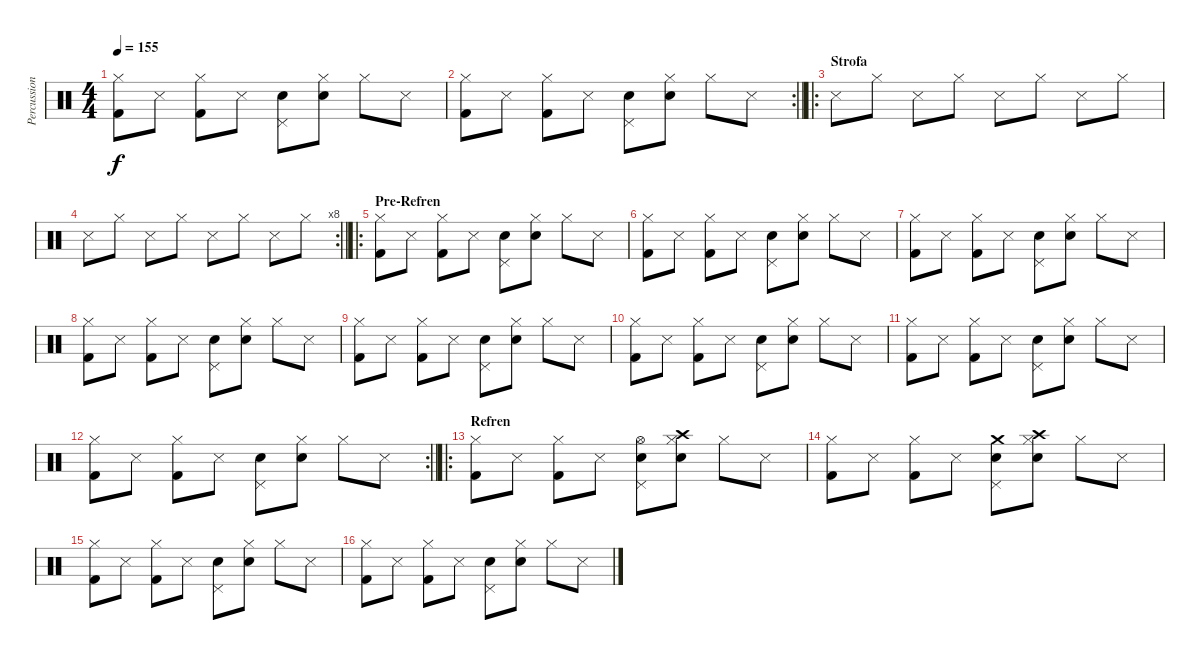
\track ("Percussion" "Percussion") {instrument percussion}
\staff {score}
\articulation defaults
\ts (4 4)
\tempo 155
\clef neutral
\ks c
("Hi-Hat (closed)" "Kick (hit) 2").8{dy f} "Snare (side stick) 3".8 ("Hi-Hat (closed)" "Kick (hit) 2").8 "Snare (side stick) 3".8 ("Pedal Hi-Hat (hit)" "Electric Snare (hit)").8 ("Hi-Hat (closed)" "Electric Snare (hit)").8 "Hi-Hat (closed)".8 "Snare (side stick) 3".8 |
\rc 2
\barLineRight lightlight
("Hi-Hat (closed)" "Kick (hit) 2").8 "Snare (side stick) 3".8 ("Hi-Hat (closed)" "Kick (hit) 2").8 "Snare (side stick) 3".8 ("Pedal Hi-Hat (hit)" "Electric Snare (hit)").8 ("Hi-Hat (closed)" "Electric Snare (hit)").8 "Hi-Hat (closed)".8 "Snare (side stick) 3".8 |
\ro
\section ("" "Strofa")
"Snare (side stick) 3".8 "Hi-Hat (closed)".8 "Snare (side stick) 3".8 "Hi-Hat (closed)".8 "Snare (side stick) 3".8 "Hi-Hat (closed)".8 "Snare (side stick) 3".8 "Hi-Hat (closed)".8 |
\rc 8
\barLineRight lightlight "Snare (side stick) 3".8 "Hi-Hat (closed)".8 "Snare (side stick) 3".8 "Hi-Hat (closed)".8 "Snare (side stick) 3".8 "Hi-Hat (closed)".8 "Snare (side stick) 3".8 "Hi-Hat (closed)".8
|
\ro
\section ("" "Pre-Refren")
("Hi-Hat (closed)" "Kick (hit) 2").8 "Snare (side stick) 3".8 ("Hi-Hat (closed)" "Kick (hit) 2").8 "Snare (side stick) 3".8 ("Pedal Hi-Hat (hit)" "Electric Snare (hit)").8 ("Hi-Hat (closed)" "Electric Snare (hit)").8 "Hi-Hat (closed)".8 "Snare (side stick) 3".8 |
("Hi-Hat (closed)" "Kick (hit) 2").8 "Snare (side stick) 3".8 ("Hi-Hat (closed)" "Kick (hit) 2").8 "Snare (side stick) 3".8 ("Pedal Hi-Hat (hit)" "Electric Snare (hit)").8 ("Hi-Hat (closed)" "Electric Snare (hit)").8 "Hi-Hat (closed)".8 "Snare (side stick) 3".8 |
("Hi-Hat (closed)" "Kick (hit) 2").8 "Snare (side stick) 3".8 ("Hi-Hat (closed)" "Kick (hit) 2").8 "Snare (side stick) 3".8 ("Pedal Hi-Hat (hit)" "Electric Snare (hit)").8 ("Hi-Hat (closed)" "Electric Snare (hit)").8 "Hi-Hat (closed)".8 "Snare (side stick) 3".8 |
("Hi-Hat (closed)" "Kick (hit) 2").8 "Snare (side stick) 3".8 ("Hi-Hat (closed)" "Kick (hit) 2").8 "Snare (side stick) 3".8 ("Pedal Hi-Hat (hit)" "Electric Snare (hit)").8 ("Hi-Hat (closed)" "Electric Snare (hit)").8 "Hi-Hat (closed)".8 "Snare (side stick) 3".8 |
("Hi-Hat (closed)" "Kick (hit) 2").8 "Snare (side stick) 3".8 ("Hi-Hat (closed)" "Kick (hit) 2").8 "Snare (side stick) 3".8 ("Pedal Hi-Hat (hit)" "Electric Snare (hit)").8 ("Hi-Hat (closed)" "Electric Snare (hit)").8 "Hi-Hat (closed)".8 "Snare (side stick) 3".8 |
("Hi-Hat (closed)" "Kick (hit) 2").8 "Snare (side stick) 3".8 ("Hi-Hat (closed)" "Kick (hit) 2").8 "Snare (side stick) 3".8 ("Pedal Hi-Hat (hit)" "Electric Snare (hit)").8 ("Hi-Hat (closed)" "Electric Snare (hit)").8 "Hi-Hat (closed)".8 "Snare (side stick) 3".8 |
("Hi-Hat (closed)" "Kick (hit) 2").8 "Snare (side stick) 3".8 ("Hi-Hat (closed)" "Kick (hit) 2").8 "Snare (side stick) 3".8 ("Pedal Hi-Hat (hit)" "Electric Snare (hit)").8 ("Hi-Hat (closed)" "Electric Snare (hit)").8 "Hi-Hat (closed)".8 "Snare (side stick) 3".8 |
\rc 2
\barLineRight lightlight
("Hi-Hat (closed)" "Kick (hit) 2").8 "Snare (side stick) 3".8 ("Hi-Hat (closed)" "Kick (hit) 2").8 "Snare (side stick) 3".8 ("Pedal Hi-Hat (hit)" "Electric Snare (hit)").8 ("Hi-Hat (closed)" "Electric Snare (hit)").8 "Hi-Hat (closed)".8 "Snare (side stick) 3".8 |
\ro
\section ("" "Refren")
("Hi-Hat (closed)" "Kick (hit) 2").8 "Snare (side stick) 3".8 ("Hi-Hat (closed)" "Kick (hit) 2").8 "Snare (side stick) 3".8 ("Hi-Hat (open)" "Pedal Hi-Hat (hit)" "Electric Snare (hit)").8 ("Crash high (hit)" "Hi-Hat (closed)" "Electric Snare (hit)").8 "Hi-Hat (closed)".8 "Snare (side stick) 3".8 |
("Hi-Hat (closed)" "Kick (hit) 2").8 "Snare (side stick) 3".8 ("Hi-Hat (closed)" "Kick (hit) 2").8 "Snare (side stick) 3".8 ("Crash medium (hit)" "Pedal Hi-Hat (hit)" "Electric Snare (hit)").8 ("Crash high (hit)" "Hi-Hat (closed)" "Electric Snare (hit)").8 "Hi-Hat (closed)".8 "Snare (side stick) 3".8 |
("Hi-Hat (closed)" "Kick (hit) 2").8 "Snare (side stick) 3".8 ("Hi-Hat (closed)" "Kick (hit) 2").8 "Snare (side stick) 3".8 ("Pedal Hi-Hat (hit)" "Electric Snare (hit)").8 ("Hi-Hat (closed)" "Electric Snare (hit)").8 "Hi-Hat (closed)".8 "Snare (side stick) 3".8 |
("Hi-Hat (closed)" "Kick (hit) 2").8 "Snare (side stick) 3".8 ("Hi-Hat (closed)" "Kick (hit) 2").8 "Snare (side stick) 3".8 ("Pedal Hi-Hat (hit)" "Electric Snare (hit)").8 ("Hi-Hat (closed)" "Electric Snare (hit)").8 "Hi-Hat (closed)".8 "Snare (side stick) 3".8
